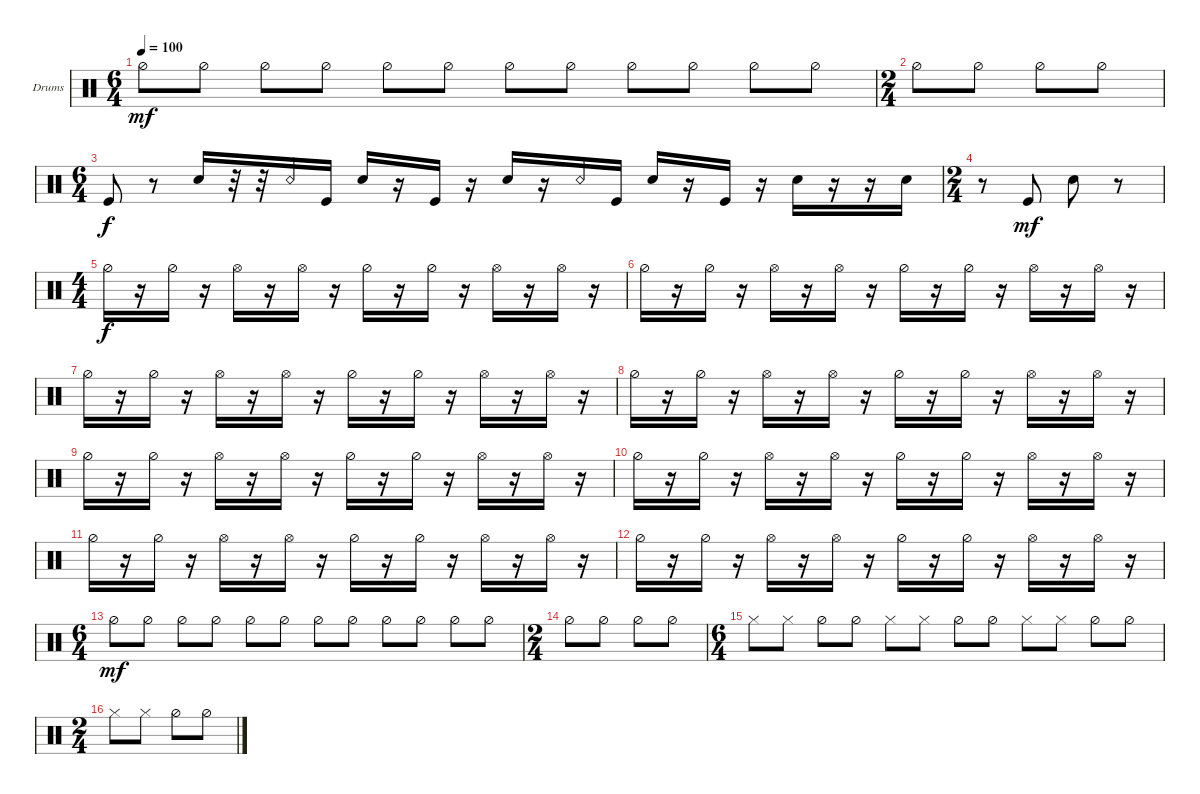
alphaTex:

\bracketExtendMode groupsimilarinstruments
\firstSystemTrackNameOrientation horizontal
\otherSystemsTrackNameOrientation horizontal
\track ("Drumkit" "Drums") {instrument percussion}
\staff {score}
\articulation defaults
\ts (6 4)
\tempo 100
\clef neutral
\ks c "Hi-Hat (half)".8{dy mf} "Hi-Hat (half)".8 "Hi-Hat (half)".8 "Hi-Hat (half)".8 "Hi-Hat (half)".8 "Hi-Hat (half)".8 "Hi-Hat (half)".8 "Hi-Hat (half)".8 "Hi-Hat (half)".8 "Hi-Hat (half)".8 "Hi-Hat (half)".8 "Hi-Hat (half)".8
|
\ts (2 4)
"Hi-Hat (half)".8 "Hi-Hat (half)".8 "Hi-Hat (half)".8 "Hi-Hat (half)".8 |
\ts (6 4)
"Kick (hit)".8{dy f} r.8 "Snare (hit) 2".16 r.32 r.32 "Snare (rim shot)".16 "Kick (hit)".16 "Snare (hit) 2".16 r.16 "Kick (hit)".16 r.16 "Snare (hit) 2".16 r.16 "Snare (rim shot)".16 "Kick (hit)".16 "Snare (hit) 2".16 r.16 "Kick (hit)".16 r.16 "Snare (hit) 2".16 r.16 r.16 "Snare (hit) 2".16 |
\ts (2 4)
r.8 "Kick (hit)".8{dy mf} "Snare (hit) 2".8 r.8 |
\ts (4 4)
"Hi-Hat (half)".16{dy f} r.16 "Hi-Hat (half)".16 r.16 "Hi-Hat (open)".16 r.16 "Hi-Hat (open)".16 r.16 "Hi-Hat (half)".16 r.16 "Hi-Hat (half)".16 r.16 "Hi-Hat (open)".16 r.16 "Hi-Hat (open)".16 r.16 |
"Hi-Hat (half)".16 r.16 "Hi-Hat (half)".16 r.16 "Hi-Hat (open)".16 r.16 "Hi-Hat (open)".16 r.16 "Hi-Hat (half)".16 r.16 "Hi-Hat (half)".16 r.16 "Hi-Hat (open)".16 r.16 "Hi-Hat (open)".16 r.16 |
"Hi-Hat (half)".16 r.16 "Hi-Hat (half)".16 r.16 "Hi-Hat (open)".16 r.16 "Hi-Hat (open)".16 r.16 "Hi-Hat (half)".16 r.16 "Hi-Hat (half)".16 r.16 "Hi-Hat (open)".16 r.16 "Hi-Hat (open)".16 r.16 |
"Hi-Hat (half)".16 r.16 "Hi-Hat (half)".16 r.16 "Hi-Hat (open)".16 r.16 "Hi-Hat (open)".16 r.16 "Hi-Hat (half)".16 r.16 "Hi-Hat (half)".16 r.16 "Hi-Hat (open)".16 r.16 "Hi-Hat (open)".16 r.16 |
"Hi-Hat (half)".16 r.16 "Hi-Hat (half)".16 r.16 "Hi-Hat (open)".16 r.16 "Hi-Hat (open)".16 r.16 "Hi-Hat (half)".16 r.16 "Hi-Hat (half)".16 r.16 "Hi-Hat (open)".16 r.16 "Hi-Hat (open)".16 r.16 |
"Hi-Hat (half)".16 r.16 "Hi-Hat (half)".16 r.16 "Hi-Hat (open)".16 r.16 "Hi-Hat (open)".16 r.16 "Hi-Hat (half)".16 r.16 "Hi-Hat (half)".16 r.16 "Hi-Hat (open)".16 r.16 "Hi-Hat (open)".16 r.16 |
"Hi-Hat (half)".16 r.16 "Hi-Hat (half)".16 r.16 "Hi-Hat (open)".16 r.16 "Hi-Hat (open)".16 r.16 "Hi-Hat (half)".16 r.16 "Hi-Hat (half)".16 r.16 "Hi-Hat (open)".16 r.16 "Hi-Hat (open)".16 r.16 |
"Hi-Hat (half)".16 r.16 "Hi-Hat (half)".16 r.16 "Hi-Hat (open)".16 r.16 "Hi-Hat (open)".16 r.16 "Hi-Hat (half)".16 r.16 "Hi-Hat (half)".16 r.16 "Hi-Hat (open)".16 r.16 "Hi-Hat (open)".16 r.16 |
\ts (6 4)
"Hi-Hat (half)".8{dy mf} "Hi-Hat (half)".8 "Hi-Hat (half)".8 "Hi-Hat (half)".8 "Hi-Hat (half)".8 "Hi-Hat (half)".8 "Hi-Hat (half)".8 "Hi-Hat (half)".8 "Hi-Hat (half)".8 "Hi-Hat (half)".8 "Hi-Hat (half)".8 "Hi-Hat (half)".8 |
\ts (2 4)
"Hi-Hat (half)".8 "Hi-Hat (half)".8 "Hi-Hat (half)".8 "Hi-Hat (half)".8 |
\ts (6 4)
"Hi-Hat (closed)".8 "Hi-Hat (closed)".8 "Hi-Hat (half)".8 "Hi-Hat (half)".8 "Hi-Hat (closed)".8 "Hi-Hat (closed)".8 "Hi-Hat (half)".8 "Hi-Hat (half)".8 "Hi-Hat (closed)".8 "Hi-Hat (closed)".8 "Hi-Hat (half)".8 "Hi-Hat (half)".8 |
\ts (2 4)
"Hi-Hat (closed)".8 "Hi-Hat (closed)".8 "Hi-Hat (half)".8 "Hi-Hat (half)".8
